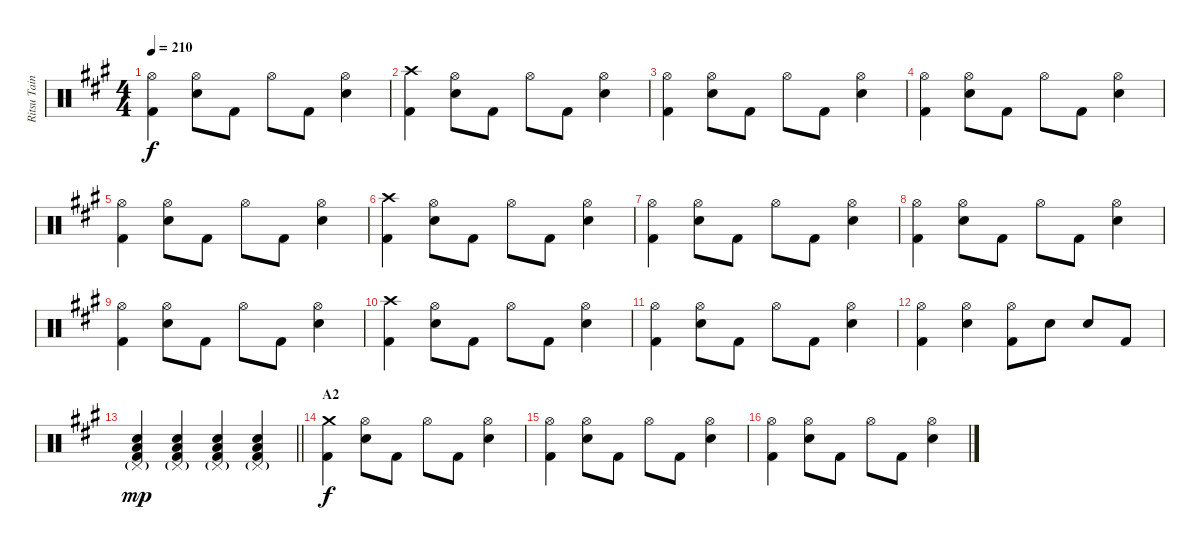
\track ("Ritsu Tainaka" "Ritsu Tain") {instrument percussion}
\staff {score}
\articulation defaults
\ts (4 4)
\tempo 210
\clef neutral
\ks a
("Hi-Hat (open)" "Kick (hit) 2").4{dy f} ("Hi-Hat (open)" "Electric Snare (hit)").8 "Kick (hit) 2".8 "Hi-Hat (open)".8 "Kick (hit) 2".8 ("Hi-Hat (open)" "Electric Snare (hit)").4 |
("Crash high (hit)" "Kick (hit) 2").4 ("Hi-Hat (open)" "Electric Snare (hit)").8 "Kick (hit) 2".8 "Hi-Hat (open)".8 "Kick (hit) 2".8 ("Hi-Hat (open)" "Electric Snare (hit)").4 |
("Hi-Hat (open)" "Kick (hit) 2").4 ("Hi-Hat (open)" "Electric Snare (hit)").8 "Kick (hit) 2".8 "Hi-Hat (open)".8 "Kick (hit) 2".8 ("Hi-Hat (open)" "Electric Snare (hit)").4 |
("Hi-Hat (open)" "Kick (hit) 2").4 ("Hi-Hat (open)" "Electric Snare (hit)").8 "Kick (hit) 2".8 "Hi-Hat (open)".8 "Kick (hit) 2".8 ("Hi-Hat (open)" "Electric Snare (hit)").4 |
("Hi-Hat (open)" "Kick (hit) 2").4 ("Hi-Hat (open)" "Electric Snare (hit)").8 "Kick (hit) 2".8 "Hi-Hat (open)".8 "Kick (hit) 2".8 ("Hi-Hat (open)" "Electric Snare (hit)").4 |
("Crash high (hit)" "Kick (hit) 2").4 ("Hi-Hat (open)" "Electric Snare (hit)").8 "Kick (hit) 2".8 "Hi-Hat (open)".8 "Kick (hit) 2".8 ("Hi-Hat (open)" "Electric Snare (hit)").4 |
("Hi-Hat (open)" "Kick (hit) 2").4 ("Hi-Hat (open)" "Electric Snare (hit)").8 "Kick (hit) 2".8 "Hi-Hat (open)".8 "Kick (hit) 2".8 ("Hi-Hat (open)" "Electric Snare (hit)").4 |
("Hi-Hat (open)" "Kick (hit) 2").4 ("Hi-Hat (open)" "Electric Snare (hit)").8 "Kick (hit) 2".8 "Hi-Hat (open)".8 "Kick (hit) 2".8 ("Hi-Hat (open)" "Electric Snare (hit)").4 |
("Hi-Hat (open)" "Kick (hit) 2").4 ("Hi-Hat (open)" "Electric Snare (hit)").8 "Kick (hit) 2".8 "Hi-Hat (open)".8 "Kick (hit) 2".8 ("Hi-Hat (open)" "Electric Snare (hit)").4 |
("Crash high (hit)" "Kick (hit) 2").4 ("Hi-Hat (open)" "Electric Snare (hit)").8 "Kick (hit) 2".8 "Hi-Hat (open)".8 "Kick (hit) 2".8 ("Hi-Hat (open)" "Electric Snare (hit)").4 |
("Hi-Hat (open)" "Kick (hit) 2").4 ("Hi-Hat (open)" "Electric Snare (hit)").8 "Kick (hit) 2".8 "Hi-Hat (open)".8 "Kick (hit) 2".8 ("Hi-Hat (open)" "Electric Snare (hit)").4 |
("Hi-Hat (open)" "Kick (hit) 2").4 ("Hi-Hat (open)" "Electric Snare (hit)").4 ("Hi-Hat (open)" "Kick (hit) 2").8 "Electric Snare (hit)".8 "Electric Snare (hit)".8 "Kick (hit) 2".8 |
\barLineRight lightlight
("Pedal Hi-Hat (hit)"{g} "Electric Snare (hit)" "Low Floor Tom (hit)" "Kick (hit) 2").4{dy mp} ("Pedal Hi-Hat (hit)"{g} "Electric Snare (hit)" "Low Floor Tom (hit)" "Kick (hit) 2").4 ("Pedal Hi-Hat (hit)"{g} "Electric Snare (hit)" "Low Floor Tom (hit)" "Kick (hit) 2").4 ("Pedal Hi-Hat (hit)"{g} "Electric Snare (hit)" "Low Floor Tom (hit)" "Kick (hit) 2").4 |
\section ("" "A2")
("Crash medium (hit)" "Kick (hit) 2").4{dy f} ("Hi-Hat (open)" "Electric Snare (hit)").8 "Kick (hit) 2".8 "Hi-Hat (open)".8 "Kick (hit) 2".8 ("Hi-Hat (open)" "Electric Snare (hit)").4 |
("Hi-Hat (open)" "Kick (hit) 2").4 ("Hi-Hat (open)" "Electric Snare (hit)").8 "Kick (hit) 2".8 "Hi-Hat (open)".8 "Kick (hit) 2".8 ("Hi-Hat (open)" "Electric Snare (hit)").4 |
("Hi-Hat (open)" "Kick (hit) 2").4 ("Hi-Hat (open)" "Electric Snare (hit)").8 "Kick (hit) 2".8 "Hi-Hat (open)".8 "Kick (hit) 2".8 ("Hi-Hat (open)" "Electric Snare (hit)").4
